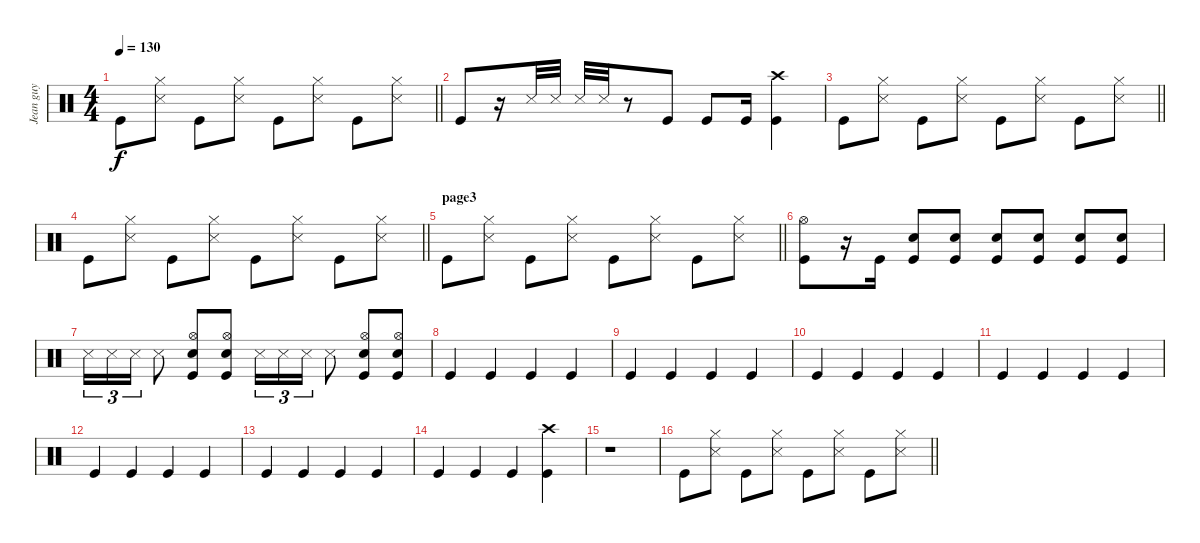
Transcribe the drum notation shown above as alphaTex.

\track ("Jean guy" "Jean guy") {instrument percussion}
\staff {score}
\articulation defaults
\ts (4 4)
\tempo 130
\clef neutral
\barLineRight lightlight
\ks c "Kick (hit)".8{dy f}
("Hi-Hat (closed)" "Snare (side stick) 3").8 "Kick (hit)".8 ("Hi-Hat (closed)" "Snare (side stick) 3").8 "Kick (hit)".8 ("Hi-Hat (closed)" "Snare (side stick) 3").8 "Kick (hit)".8 ("Hi-Hat (closed)" "Snare (side stick) 3").8 |
"Kick (hit)".8 r.16 "Snare (side stick) 3".32 "Snare (side stick) 3".32 "Snare (side stick) 3".32 "Snare (side stick) 3".32 r.8 "Kick (hit)".8 "Kick (hit)".8 "Kick (hit)".16 ("Crash high (hit)" "Kick (hit)").4 |
\barLineRight lightlight "Kick (hit)".8
("Hi-Hat (closed)" "Snare (side stick) 3").8 "Kick (hit)".8 ("Hi-Hat (closed)" "Snare (side stick) 3").8 "Kick (hit)".8 ("Hi-Hat (closed)" "Snare (side stick) 3").8 "Kick (hit)".8 ("Hi-Hat (closed)" "Snare (side stick) 3").8 |
\barLineRight lightlight "Kick (hit)".8
("Hi-Hat (closed)" "Snare (side stick) 3").8 "Kick (hit)".8 ("Hi-Hat (closed)" "Snare (side stick) 3").8 "Kick (hit)".8 ("Hi-Hat (closed)" "Snare (side stick) 3").8 "Kick (hit)".8 ("Hi-Hat (closed)" "Snare (side stick) 3").8 |
\section ("" "page3")
\barLineRight lightlight "Kick (hit)".8
("Hi-Hat (closed)" "Snare (side stick) 3").8 "Kick (hit)".8 ("Hi-Hat (closed)" "Snare (side stick) 3").8 "Kick (hit)".8 ("Hi-Hat (closed)" "Snare (side stick) 3").8 "Kick (hit)".8 ("Hi-Hat (closed)" "Snare (side stick) 3").8 |
("Hi-Hat (open)" "Kick (hit)").8 r.16 "Kick (hit)".16 ("Electric Snare (hit)" "Kick (hit)").8 ("Electric Snare (hit)" "Kick (hit)").8 ("Electric Snare (hit)" "Kick (hit)").8 ("Electric Snare (hit)" "Kick (hit)").8 ("Electric Snare (hit)" "Kick (hit)").8 ("Electric Snare (hit)" "Kick (hit)").8 |
"Snare (side stick) 3".16{tu (3 2)} "Snare (side stick) 3".16{tu (3 2)} "Snare (side stick) 3".16{tu (3 2)} "Snare (side stick) 3".8 ("Electric Snare (hit)" "Kick (hit)" "Hi-Hat (open)").8 ("Electric Snare (hit)" "Kick (hit)" "Hi-Hat (open)").8 "Snare (side stick) 3".16{tu (3 2)} "Snare (side stick) 3".16{tu (3 2)} "Snare (side stick) 3".16{tu (3 2)} "Snare (side stick) 3".8 ("Electric Snare (hit)" "Kick (hit)" "Hi-Hat (open)").8 ("Electric Snare (hit)" "Kick (hit)" "Hi-Hat (open)").8 |
"Kick (hit)".4 "Kick (hit)".4 "Kick (hit)".4 "Kick (hit)".4 |
"Kick (hit)".4 "Kick (hit)".4 "Kick (hit)".4 "Kick (hit)".4 |
"Kick (hit)".4 "Kick (hit)".4 "Kick (hit)".4 "Kick (hit)".4 |
"Kick (hit)".4 "Kick (hit)".4 "Kick (hit)".4 "Kick (hit)".4 |
"Kick (hit)".4 "Kick (hit)".4 "Kick (hit)".4 "Kick (hit)".4 |
"Kick (hit)".4 "Kick (hit)".4 "Kick (hit)".4 "Kick (hit)".4 |
"Kick (hit)".4 "Kick (hit)".4 "Kick (hit)".4 ("Crash high (hit)" "Kick (hit)").4 |
r.1 |
\barLineRight lightlight "Kick (hit)".8
("Hi-Hat (closed)" "Snare (side stick) 3").8 "Kick (hit)".8 ("Hi-Hat (closed)" "Snare (side stick) 3").8 "Kick (hit)".8 ("Hi-Hat (closed)" "Snare (side stick) 3").8 "Kick (hit)".8 ("Hi-Hat (closed)" "Snare (side stick) 3").8
